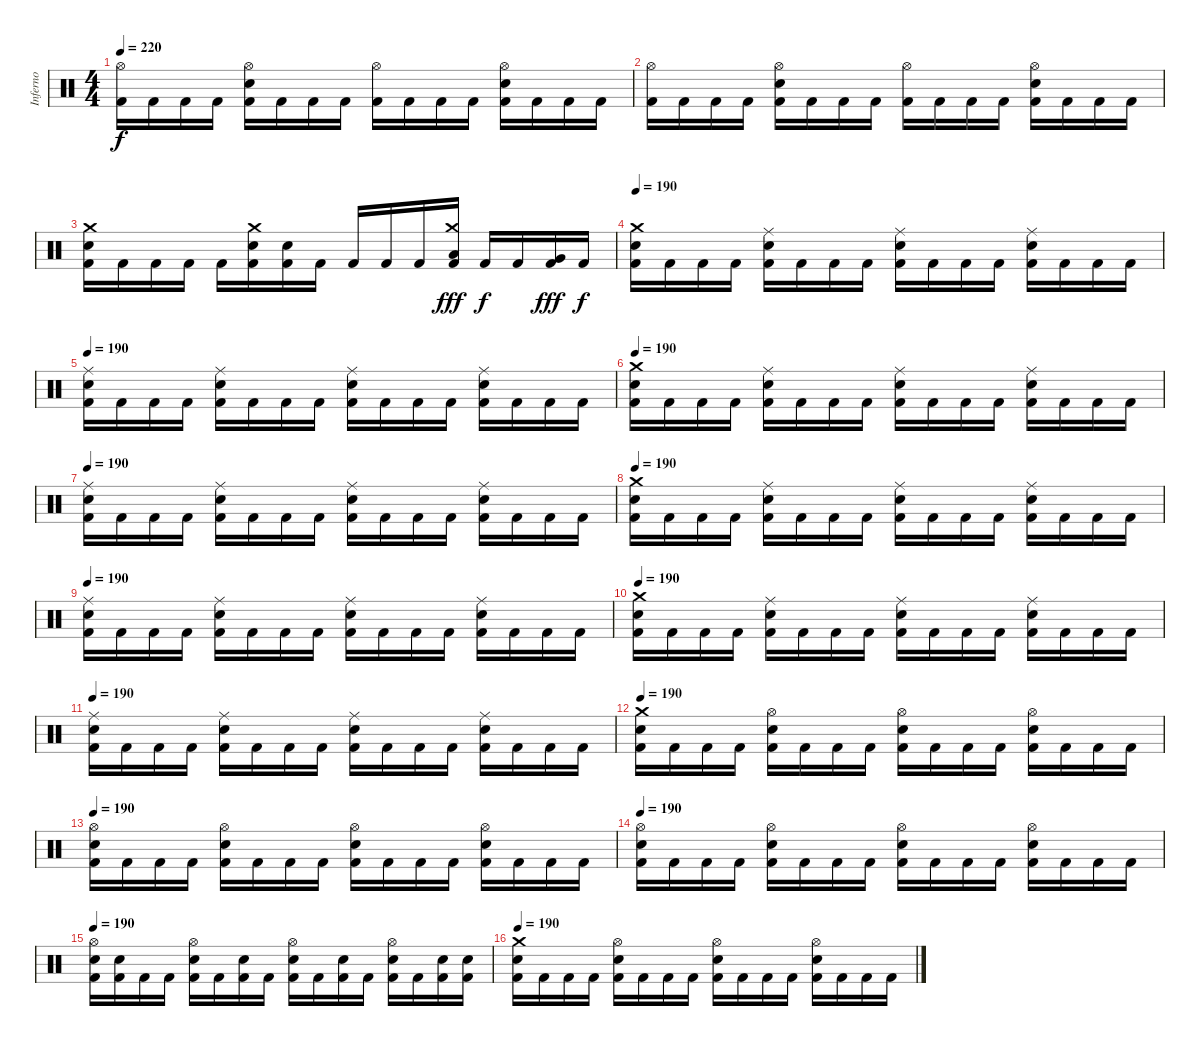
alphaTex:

\track ("Inferno" "Inferno") {instrument percussion}
\staff {score}
\articulation defaults
\ts (4 4)
\tempo 220
\clef neutral
\ks c
("Hi-Hat (open)" "Kick (hit) 2").16{dy f} "Kick (hit) 2".16 "Kick (hit) 2".16 "Kick (hit) 2".16 ("Hi-Hat (open)" "Snare (hit) 2" "Kick (hit) 2").16 "Kick (hit) 2".16 "Kick (hit) 2".16 "Kick (hit) 2".16 ("Hi-Hat (open)" "Kick (hit) 2").16 "Kick (hit) 2".16 "Kick (hit) 2".16 "Kick (hit) 2".16 ("Hi-Hat (open)" "Snare (hit) 2" "Kick (hit) 2").16 "Kick (hit) 2".16 "Kick (hit) 2".16 "Kick (hit) 2".16 |
("Hi-Hat (open)" "Kick (hit) 2").16 "Kick (hit) 2".16 "Kick (hit) 2".16 "Kick (hit) 2".16 ("Hi-Hat (open)" "Snare (hit) 2" "Kick (hit) 2").16 "Kick (hit) 2".16 "Kick (hit) 2".16 "Kick (hit) 2".16 ("Hi-Hat (open)" "Kick (hit) 2").16 "Kick (hit) 2".16 "Kick (hit) 2".16 "Kick (hit) 2".16 ("Hi-Hat (open)" "Snare (hit) 2" "Kick (hit) 2").16 "Kick (hit) 2".16 "Kick (hit) 2".16 "Kick (hit) 2".16 |
("Crash medium (hit)" "Snare (hit) 2" "Kick (hit) 2").16 "Kick (hit) 2".16 "Kick (hit) 2".16 "Kick (hit) 2".16 "Kick (hit) 2".16 ("Crash medium (hit)" "Snare (hit) 2" "Kick (hit) 2").16 ("Snare (hit) 2" "Kick (hit) 2").16 "Kick (hit) 2".16 "Kick (hit) 2".16 "Kick (hit) 2".16 "Kick (hit) 2".16 ("Crash medium (hit)" "Low Tom (hit)" "Kick (hit) 2").16{dy fff} "Kick (hit) 2".16{dy f} "Kick (hit) 2".16 ("Very Low Tom (hit)" "Kick (hit) 2").16{dy fff} "Kick (hit) 2".16{dy f} |
\tempo 190
("Crash medium (hit)" "Snare (hit) 2" "Kick (hit) 2").16 "Kick (hit) 2".16 "Kick (hit) 2".16 "Kick (hit) 2".16 ("Ride (middle)" "Snare (hit) 2" "Kick (hit) 2").16 "Kick (hit) 2".16 "Kick (hit) 2".16 "Kick (hit) 2".16 ("Ride (middle)" "Snare (hit) 2" "Kick (hit) 2").16 "Kick (hit) 2".16 "Kick (hit) 2".16 "Kick (hit) 2".16 ("Ride (middle)" "Snare (hit) 2" "Kick (hit) 2").16 "Kick (hit) 2".16 "Kick (hit) 2".16 "Kick (hit) 2".16 |
\tempo 190
("Ride (middle)" "Snare (hit) 2" "Kick (hit) 2").16 "Kick (hit) 2".16 "Kick (hit) 2".16 "Kick (hit) 2".16 ("Ride (middle)" "Snare (hit) 2" "Kick (hit) 2").16 "Kick (hit) 2".16 "Kick (hit) 2".16 "Kick (hit) 2".16 ("Ride (middle)" "Snare (hit) 2" "Kick (hit) 2").16 "Kick (hit) 2".16 "Kick (hit) 2".16 "Kick (hit) 2".16 ("Ride (middle)" "Snare (hit) 2" "Kick (hit) 2").16 "Kick (hit) 2".16 "Kick (hit) 2".16 "Kick (hit) 2".16 |
\tempo 190
("Crash medium (hit)" "Snare (hit) 2" "Kick (hit) 2").16 "Kick (hit) 2".16 "Kick (hit) 2".16 "Kick (hit) 2".16 ("Ride (middle)" "Snare (hit) 2" "Kick (hit) 2").16 "Kick (hit) 2".16 "Kick (hit) 2".16 "Kick (hit) 2".16 ("Ride (middle)" "Snare (hit) 2" "Kick (hit) 2").16 "Kick (hit) 2".16 "Kick (hit) 2".16 "Kick (hit) 2".16 ("Ride (middle)" "Snare (hit) 2" "Kick (hit) 2").16 "Kick (hit) 2".16 "Kick (hit) 2".16 "Kick (hit) 2".16 |
\tempo 190
("Ride (middle)" "Snare (hit) 2" "Kick (hit) 2").16 "Kick (hit) 2".16 "Kick (hit) 2".16 "Kick (hit) 2".16 ("Ride (middle)" "Snare (hit) 2" "Kick (hit) 2").16 "Kick (hit) 2".16 "Kick (hit) 2".16 "Kick (hit) 2".16 ("Ride (middle)" "Snare (hit) 2" "Kick (hit) 2").16 "Kick (hit) 2".16 "Kick (hit) 2".16 "Kick (hit) 2".16 ("Ride (middle)" "Snare (hit) 2" "Kick (hit) 2").16 "Kick (hit) 2".16 "Kick (hit) 2".16 "Kick (hit) 2".16 |
\tempo 190
("Crash medium (hit)" "Snare (hit) 2" "Kick (hit) 2").16 "Kick (hit) 2".16 "Kick (hit) 2".16 "Kick (hit) 2".16 ("Ride (middle)" "Snare (hit) 2" "Kick (hit) 2").16 "Kick (hit) 2".16 "Kick (hit) 2".16 "Kick (hit) 2".16 ("Ride (middle)" "Snare (hit) 2" "Kick (hit) 2").16 "Kick (hit) 2".16 "Kick (hit) 2".16 "Kick (hit) 2".16 ("Ride (middle)" "Snare (hit) 2" "Kick (hit) 2").16 "Kick (hit) 2".16 "Kick (hit) 2".16 "Kick (hit) 2".16 |
\tempo 190
("Ride (middle)" "Snare (hit) 2" "Kick (hit) 2").16 "Kick (hit) 2".16 "Kick (hit) 2".16 "Kick (hit) 2".16 ("Ride (middle)" "Snare (hit) 2" "Kick (hit) 2").16 "Kick (hit) 2".16 "Kick (hit) 2".16 "Kick (hit) 2".16 ("Ride (middle)" "Snare (hit) 2" "Kick (hit) 2").16 "Kick (hit) 2".16 "Kick (hit) 2".16 "Kick (hit) 2".16 ("Ride (middle)" "Snare (hit) 2" "Kick (hit) 2").16 "Kick (hit) 2".16 "Kick (hit) 2".16 "Kick (hit) 2".16 |
\tempo 190
("Crash medium (hit)" "Snare (hit) 2" "Kick (hit) 2").16 "Kick (hit) 2".16 "Kick (hit) 2".16 "Kick (hit) 2".16 ("Ride (middle)" "Snare (hit) 2" "Kick (hit) 2").16 "Kick (hit) 2".16 "Kick (hit) 2".16 "Kick (hit) 2".16 ("Ride (middle)" "Snare (hit) 2" "Kick (hit) 2").16 "Kick (hit) 2".16 "Kick (hit) 2".16 "Kick (hit) 2".16 ("Ride (middle)" "Snare (hit) 2" "Kick (hit) 2").16 "Kick (hit) 2".16 "Kick (hit) 2".16 "Kick (hit) 2".16 |
\tempo 190
("Ride (middle)" "Snare (hit) 2" "Kick (hit) 2").16 "Kick (hit) 2".16 "Kick (hit) 2".16 "Kick (hit) 2".16 ("Ride (middle)" "Snare (hit) 2" "Kick (hit) 2").16 "Kick (hit) 2".16 "Kick (hit) 2".16 "Kick (hit) 2".16 ("Ride (middle)" "Snare (hit) 2" "Kick (hit) 2").16 "Kick (hit) 2".16 "Kick (hit) 2".16 "Kick (hit) 2".16 ("Ride (middle)" "Snare (hit) 2" "Kick (hit) 2").16 "Kick (hit) 2".16 "Kick (hit) 2".16 "Kick (hit) 2".16 |
\tempo 190
("Crash medium (hit)" "Snare (hit) 2" "Kick (hit) 2").16 "Kick (hit) 2".16 "Kick (hit) 2".16 "Kick (hit) 2".16 ("Hi-Hat (open)" "Snare (hit) 2" "Kick (hit) 2").16 "Kick (hit) 2".16 "Kick (hit) 2".16 "Kick (hit) 2".16 ("Hi-Hat (open)" "Snare (hit) 2" "Kick (hit) 2").16 "Kick (hit) 2".16 "Kick (hit) 2".16 "Kick (hit) 2".16 ("Hi-Hat (open)" "Snare (hit) 2" "Kick (hit) 2").16 "Kick (hit) 2".16 "Kick (hit) 2".16 "Kick (hit) 2".16 |
\tempo 190
("Hi-Hat (open)" "Snare (hit) 2" "Kick (hit) 2").16 "Kick (hit) 2".16 "Kick (hit) 2".16 "Kick (hit) 2".16 ("Hi-Hat (open)" "Snare (hit) 2" "Kick (hit) 2").16 "Kick (hit) 2".16 "Kick (hit) 2".16 "Kick (hit) 2".16 ("Hi-Hat (open)" "Snare (hit) 2" "Kick (hit) 2").16 "Kick (hit) 2".16 "Kick (hit) 2".16 "Kick (hit) 2".16 ("Hi-Hat (open)" "Snare (hit) 2" "Kick (hit) 2").16 "Kick (hit) 2".16 "Kick (hit) 2".16 "Kick (hit) 2".16 |
\tempo 190
("Hi-Hat (open)" "Snare (hit) 2" "Kick (hit) 2").16 "Kick (hit) 2".16 "Kick (hit) 2".16 "Kick (hit) 2".16 ("Hi-Hat (open)" "Snare (hit) 2" "Kick (hit) 2").16 "Kick (hit) 2".16 "Kick (hit) 2".16 "Kick (hit) 2".16 ("Hi-Hat (open)" "Snare (hit) 2" "Kick (hit) 2").16 "Kick (hit) 2".16 "Kick (hit) 2".16 "Kick (hit) 2".16 ("Hi-Hat (open)" "Snare (hit) 2" "Kick (hit) 2").16 "Kick (hit) 2".16 "Kick (hit) 2".16 "Kick (hit) 2".16 |
\tempo 190
("Hi-Hat (open)" "Snare (hit) 2" "Kick (hit) 2").16 ("Snare (hit) 2" "Kick (hit) 2").16 "Kick (hit) 2".16 "Kick (hit) 2".16 ("Hi-Hat (open)" "Snare (hit) 2" "Kick (hit) 2").16 "Kick (hit) 2".16 ("Snare (hit) 2" "Kick (hit) 2").16 "Kick (hit) 2".16 ("Hi-Hat (open)" "Snare (hit) 2" "Kick (hit) 2").16 "Kick (hit) 2".16 ("Snare (hit) 2" "Kick (hit) 2").16 "Kick (hit) 2".16 ("Hi-Hat (open)" "Snare (hit) 2" "Kick (hit) 2").16 "Kick (hit) 2".16 ("Snare (hit) 2" "Kick (hit) 2").16 ("Snare (hit) 2" "Kick (hit) 2").16 |
\tempo 190
("Crash medium (hit)" "Snare (hit) 2" "Kick (hit) 2").16 "Kick (hit) 2".16 "Kick (hit) 2".16 "Kick (hit) 2".16 ("Hi-Hat (open)" "Snare (hit) 2" "Kick (hit) 2").16 "Kick (hit) 2".16 "Kick (hit) 2".16 "Kick (hit) 2".16 ("Hi-Hat (open)" "Snare (hit) 2" "Kick (hit) 2").16 "Kick (hit) 2".16 "Kick (hit) 2".16 "Kick (hit) 2".16 ("Hi-Hat (open)" "Snare (hit) 2" "Kick (hit) 2").16 "Kick (hit) 2".16 "Kick (hit) 2".16 "Kick (hit) 2".16
